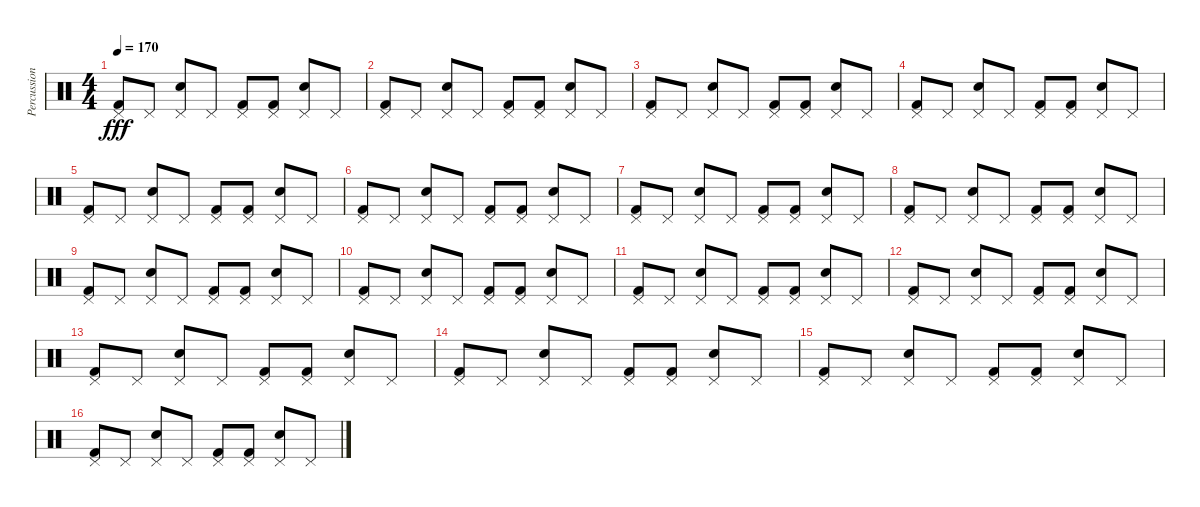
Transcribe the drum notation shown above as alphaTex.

\track ("Percussion" "Percussion") {instrument percussion}
\staff {score}
\articulation defaults
\ts (4 4)
\tempo 170
\clef neutral
\ks c
("Pedal Hi-Hat (hit)" "Kick (hit) 2").8{dy fff} "Pedal Hi-Hat (hit)".8 ("Pedal Hi-Hat (hit)" "Snare (hit) 2").8 "Pedal Hi-Hat (hit)".8 ("Pedal Hi-Hat (hit)" "Kick (hit) 2").8 ("Pedal Hi-Hat (hit)" "Kick (hit) 2").8 ("Pedal Hi-Hat (hit)" "Snare (hit) 2").8 "Pedal Hi-Hat (hit)".8 |
("Pedal Hi-Hat (hit)" "Kick (hit) 2").8 "Pedal Hi-Hat (hit)".8 ("Pedal Hi-Hat (hit)" "Snare (hit) 2").8 "Pedal Hi-Hat (hit)".8 ("Pedal Hi-Hat (hit)" "Kick (hit) 2").8 ("Pedal Hi-Hat (hit)" "Kick (hit) 2").8 ("Pedal Hi-Hat (hit)" "Snare (hit) 2").8 "Pedal Hi-Hat (hit)".8 |
("Pedal Hi-Hat (hit)" "Kick (hit) 2").8 "Pedal Hi-Hat (hit)".8 ("Pedal Hi-Hat (hit)" "Snare (hit) 2").8 "Pedal Hi-Hat (hit)".8 ("Pedal Hi-Hat (hit)" "Kick (hit) 2").8 ("Pedal Hi-Hat (hit)" "Kick (hit) 2").8 ("Pedal Hi-Hat (hit)" "Snare (hit) 2").8 "Pedal Hi-Hat (hit)".8 |
("Pedal Hi-Hat (hit)" "Kick (hit) 2").8 "Pedal Hi-Hat (hit)".8 ("Pedal Hi-Hat (hit)" "Snare (hit) 2").8 "Pedal Hi-Hat (hit)".8 ("Pedal Hi-Hat (hit)" "Kick (hit) 2").8 ("Pedal Hi-Hat (hit)" "Kick (hit) 2").8 ("Pedal Hi-Hat (hit)" "Snare (hit) 2").8 "Pedal Hi-Hat (hit)".8 |
("Pedal Hi-Hat (hit)" "Kick (hit) 2").8 "Pedal Hi-Hat (hit)".8 ("Pedal Hi-Hat (hit)" "Snare (hit) 2").8 "Pedal Hi-Hat (hit)".8 ("Pedal Hi-Hat (hit)" "Kick (hit) 2").8 ("Pedal Hi-Hat (hit)" "Kick (hit) 2").8 ("Pedal Hi-Hat (hit)" "Snare (hit) 2").8 "Pedal Hi-Hat (hit)".8 |
("Pedal Hi-Hat (hit)" "Kick (hit) 2").8 "Pedal Hi-Hat (hit)".8 ("Pedal Hi-Hat (hit)" "Snare (hit) 2").8 "Pedal Hi-Hat (hit)".8 ("Pedal Hi-Hat (hit)" "Kick (hit) 2").8 ("Pedal Hi-Hat (hit)" "Kick (hit) 2").8 ("Pedal Hi-Hat (hit)" "Snare (hit) 2").8 "Pedal Hi-Hat (hit)".8 |
("Pedal Hi-Hat (hit)" "Kick (hit) 2").8 "Pedal Hi-Hat (hit)".8 ("Pedal Hi-Hat (hit)" "Snare (hit) 2").8 "Pedal Hi-Hat (hit)".8 ("Pedal Hi-Hat (hit)" "Kick (hit) 2").8 ("Pedal Hi-Hat (hit)" "Kick (hit) 2").8 ("Pedal Hi-Hat (hit)" "Snare (hit) 2").8 "Pedal Hi-Hat (hit)".8 |
("Pedal Hi-Hat (hit)" "Kick (hit) 2").8 "Pedal Hi-Hat (hit)".8 ("Pedal Hi-Hat (hit)" "Snare (hit) 2").8 "Pedal Hi-Hat (hit)".8 ("Pedal Hi-Hat (hit)" "Kick (hit) 2").8 ("Pedal Hi-Hat (hit)" "Kick (hit) 2").8 ("Pedal Hi-Hat (hit)" "Snare (hit) 2").8 "Pedal Hi-Hat (hit)".8 |
("Pedal Hi-Hat (hit)" "Kick (hit) 2").8 "Pedal Hi-Hat (hit)".8 ("Pedal Hi-Hat (hit)" "Snare (hit) 2").8 "Pedal Hi-Hat (hit)".8 ("Pedal Hi-Hat (hit)" "Kick (hit) 2").8 ("Pedal Hi-Hat (hit)" "Kick (hit) 2").8 ("Pedal Hi-Hat (hit)" "Snare (hit) 2").8 "Pedal Hi-Hat (hit)".8 |
("Pedal Hi-Hat (hit)" "Kick (hit) 2").8 "Pedal Hi-Hat (hit)".8 ("Pedal Hi-Hat (hit)" "Snare (hit) 2").8 "Pedal Hi-Hat (hit)".8 ("Pedal Hi-Hat (hit)" "Kick (hit) 2").8 ("Pedal Hi-Hat (hit)" "Kick (hit) 2").8 ("Pedal Hi-Hat (hit)" "Snare (hit) 2").8 "Pedal Hi-Hat (hit)".8 |
("Pedal Hi-Hat (hit)" "Kick (hit) 2").8 "Pedal Hi-Hat (hit)".8 ("Pedal Hi-Hat (hit)" "Snare (hit) 2").8 "Pedal Hi-Hat (hit)".8 ("Pedal Hi-Hat (hit)" "Kick (hit) 2").8 ("Pedal Hi-Hat (hit)" "Kick (hit) 2").8 ("Pedal Hi-Hat (hit)" "Snare (hit) 2").8 "Pedal Hi-Hat (hit)".8 |
("Pedal Hi-Hat (hit)" "Kick (hit) 2").8 "Pedal Hi-Hat (hit)".8 ("Pedal Hi-Hat (hit)" "Snare (hit) 2").8 "Pedal Hi-Hat (hit)".8 ("Pedal Hi-Hat (hit)" "Kick (hit) 2").8 ("Pedal Hi-Hat (hit)" "Kick (hit) 2").8 ("Pedal Hi-Hat (hit)" "Snare (hit) 2").8 "Pedal Hi-Hat (hit)".8 |
("Pedal Hi-Hat (hit)" "Kick (hit) 2").8 "Pedal Hi-Hat (hit)".8 ("Pedal Hi-Hat (hit)" "Snare (hit) 2").8 "Pedal Hi-Hat (hit)".8 ("Pedal Hi-Hat (hit)" "Kick (hit) 2").8 ("Pedal Hi-Hat (hit)" "Kick (hit) 2").8 ("Pedal Hi-Hat (hit)" "Snare (hit) 2").8 "Pedal Hi-Hat (hit)".8 |
("Pedal Hi-Hat (hit)" "Kick (hit) 2").8 "Pedal Hi-Hat (hit)".8 ("Pedal Hi-Hat (hit)" "Snare (hit) 2").8 "Pedal Hi-Hat (hit)".8 ("Pedal Hi-Hat (hit)" "Kick (hit) 2").8 ("Pedal Hi-Hat (hit)" "Kick (hit) 2").8 ("Pedal Hi-Hat (hit)" "Snare (hit) 2").8 "Pedal Hi-Hat (hit)".8 |
("Pedal Hi-Hat (hit)" "Kick (hit) 2").8 "Pedal Hi-Hat (hit)".8 ("Pedal Hi-Hat (hit)" "Snare (hit) 2").8 "Pedal Hi-Hat (hit)".8 ("Pedal Hi-Hat (hit)" "Kick (hit) 2").8 ("Pedal Hi-Hat (hit)" "Kick (hit) 2").8 ("Pedal Hi-Hat (hit)" "Snare (hit) 2").8 "Pedal Hi-Hat (hit)".8 |
("Pedal Hi-Hat (hit)" "Kick (hit) 2").8 "Pedal Hi-Hat (hit)".8 ("Pedal Hi-Hat (hit)" "Snare (hit) 2").8 "Pedal Hi-Hat (hit)".8 ("Pedal Hi-Hat (hit)" "Kick (hit) 2").8 ("Pedal Hi-Hat (hit)" "Kick (hit) 2").8 ("Pedal Hi-Hat (hit)" "Snare (hit) 2").8 "Pedal Hi-Hat (hit)".8
